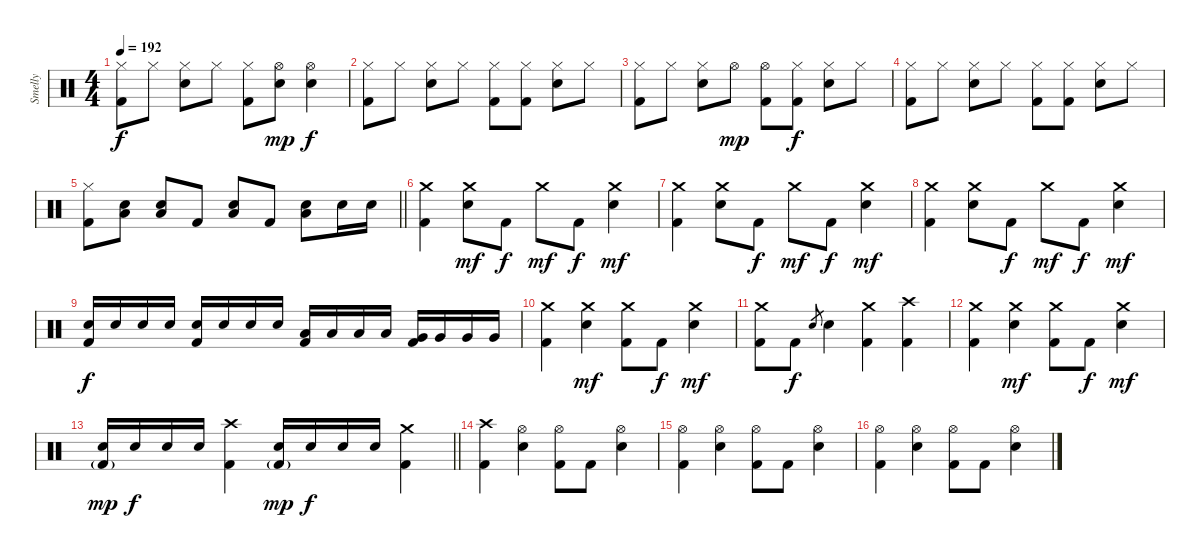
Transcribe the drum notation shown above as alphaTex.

\track ("Smelly" "Smelly") {instrument percussion}
\staff {score}
\articulation defaults
\ts (4 4)
\tempo 192
\clef neutral
\ks c
("Hi-Hat (closed)" "Kick (hit) 2").8{dy f} "Hi-Hat (closed)".8 ("Hi-Hat (closed)" "Electric Snare (hit)").8 "Hi-Hat (closed)".8 ("Hi-Hat (closed)" "Kick (hit) 2").8 ("Hi-Hat (open)" "Electric Snare (hit)").8{dy mp} ("Hi-Hat (open)" "Electric Snare (hit)").4{dy f} |
("Hi-Hat (closed)" "Kick (hit) 2").8 "Hi-Hat (closed)".8 ("Hi-Hat (closed)" "Electric Snare (hit)").8 "Hi-Hat (closed)".8 ("Hi-Hat (closed)" "Kick (hit) 2").8 ("Hi-Hat (closed)" "Kick (hit) 2").8 ("Hi-Hat (closed)" "Electric Snare (hit)").8 "Hi-Hat (closed)".8 |
("Hi-Hat (closed)" "Kick (hit) 2").8 "Hi-Hat (closed)".8 ("Hi-Hat (closed)" "Electric Snare (hit)").8 "Hi-Hat (open)".8{dy mp} ("Hi-Hat (open)" "Kick (hit) 2").8 ("Hi-Hat (closed)" "Kick (hit) 2").8{dy f} ("Hi-Hat (closed)" "Electric Snare (hit)").8 "Hi-Hat (closed)".8 |
("Hi-Hat (closed)" "Kick (hit) 2").8 "Hi-Hat (closed)".8 ("Hi-Hat (closed)" "Electric Snare (hit)").8 "Hi-Hat (closed)".8 ("Hi-Hat (closed)" "Kick (hit) 2").8 ("Hi-Hat (closed)" "Kick (hit) 2").8 ("Hi-Hat (closed)" "Electric Snare (hit)").8 "Hi-Hat (closed)".8 |
\barLineRight lightlight
("Hi-Hat (closed)" "Kick (hit) 2").8 ("Electric Snare (hit)" "Low Floor Tom (hit)").8 ("Electric Snare (hit)" "Low Floor Tom (hit)").8 "Kick (hit) 2".8 ("Electric Snare (hit)" "Low Floor Tom (hit)").8 "Kick (hit) 2".8 ("Electric Snare (hit)" "Low Floor Tom (hit)").8 "Electric Snare (hit)".16 "Electric Snare (hit)".16 |
\section ("" "")
("Crash medium (hit)" "Kick (hit) 2").4 ("Crash medium (hit)" "Electric Snare (hit)").8{dy mf} "Kick (hit) 2".8{dy f} "Crash medium (hit)".8{dy mf} "Kick (hit) 2".8{dy f} ("Crash medium (hit)" "Electric Snare (hit)").4{dy mf} |
("Crash medium (hit)" "Kick (hit) 2").4 ("Crash medium (hit)" "Electric Snare (hit)").8 "Kick (hit) 2".8{dy f} "Crash medium (hit)".8{dy mf} "Kick (hit) 2".8{dy f} ("Crash medium (hit)" "Electric Snare (hit)").4{dy mf} |
("Crash medium (hit)" "Kick (hit) 2").4 ("Crash medium (hit)" "Electric Snare (hit)").8 "Kick (hit) 2".8{dy f} "Crash medium (hit)".8{dy mf} "Kick (hit) 2".8{dy f} ("Crash medium (hit)" "Electric Snare (hit)").4{dy mf} |
("Electric Snare (hit)" "Kick (hit) 2").16{dy f} "Electric Snare (hit)".16 "Electric Snare (hit)".16 "Electric Snare (hit)".16 ("Electric Snare (hit)" "Kick (hit) 2").16 "Electric Snare (hit)".16 "Electric Snare (hit)".16 "Electric Snare (hit)".16 ("Low Tom (hit)" "Kick (hit) 2").16 "Low Tom (hit)".16 "Low Tom (hit)".16 "Low Tom (hit)".16 ("Very Low Tom (hit)" "Kick (hit) 2").16 "Very Low Tom (hit)".16 "Very Low Tom (hit)".16 "Very Low Tom (hit)".16 |
("Crash medium (hit)" "Kick (hit) 2").4 ("Crash medium (hit)" "Electric Snare (hit)").4{dy mf} ("Crash medium (hit)" "Kick (hit) 2").8 "Kick (hit) 2".8{dy f} ("Crash medium (hit)" "Electric Snare (hit)").4{dy mf} |
("Crash medium (hit)" "Kick (hit) 2").8 "Kick (hit) 2".8{dy f} "Electric Snare (hit)".8{gr} "Electric Snare (hit)".4 ("Crash medium (hit)" "Kick (hit) 2").4 ("Crash high (hit)" "Kick (hit) 2").4 |
("Crash medium (hit)" "Kick (hit) 2").4 ("Crash medium (hit)" "Electric Snare (hit)").4{dy mf} ("Crash medium (hit)" "Kick (hit) 2").8 "Kick (hit) 2".8{dy f} ("Crash medium (hit)" "Electric Snare (hit)").4{dy mf} |
\barLineRight lightlight
("Electric Snare (hit)" "Kick (hit) 2"{g}).16{dy mp} "Electric Snare (hit)".16{dy f} "Electric Snare (hit)".16 "Electric Snare (hit)".16 ("Crash high (hit)" "Kick (hit) 2").4 ("Electric Snare (hit)" "Kick (hit) 2"{g}).16{dy mp} "Electric Snare (hit)".16{dy f} "Electric Snare (hit)".16 "Electric Snare (hit)".16 ("Crash medium (hit)" "Kick (hit) 2").4 |
\section ("" "")
("Crash high (hit)" "Kick (hit) 2").4 ("Hi-Hat (open)" "Electric Snare (hit)").4 ("Hi-Hat (open)" "Kick (hit) 2").8 "Kick (hit) 2".8 ("Hi-Hat (open)" "Electric Snare (hit)").4 |
("Hi-Hat (open)" "Kick (hit) 2").4 ("Hi-Hat (open)" "Electric Snare (hit)").4 ("Hi-Hat (open)" "Kick (hit) 2").8 "Kick (hit) 2".8 ("Hi-Hat (open)" "Electric Snare (hit)").4 |
("Hi-Hat (open)" "Kick (hit) 2").4 ("Hi-Hat (open)" "Electric Snare (hit)").4 ("Hi-Hat (open)" "Kick (hit) 2").8 "Kick (hit) 2".8 ("Hi-Hat (open)" "Electric Snare (hit)").4
